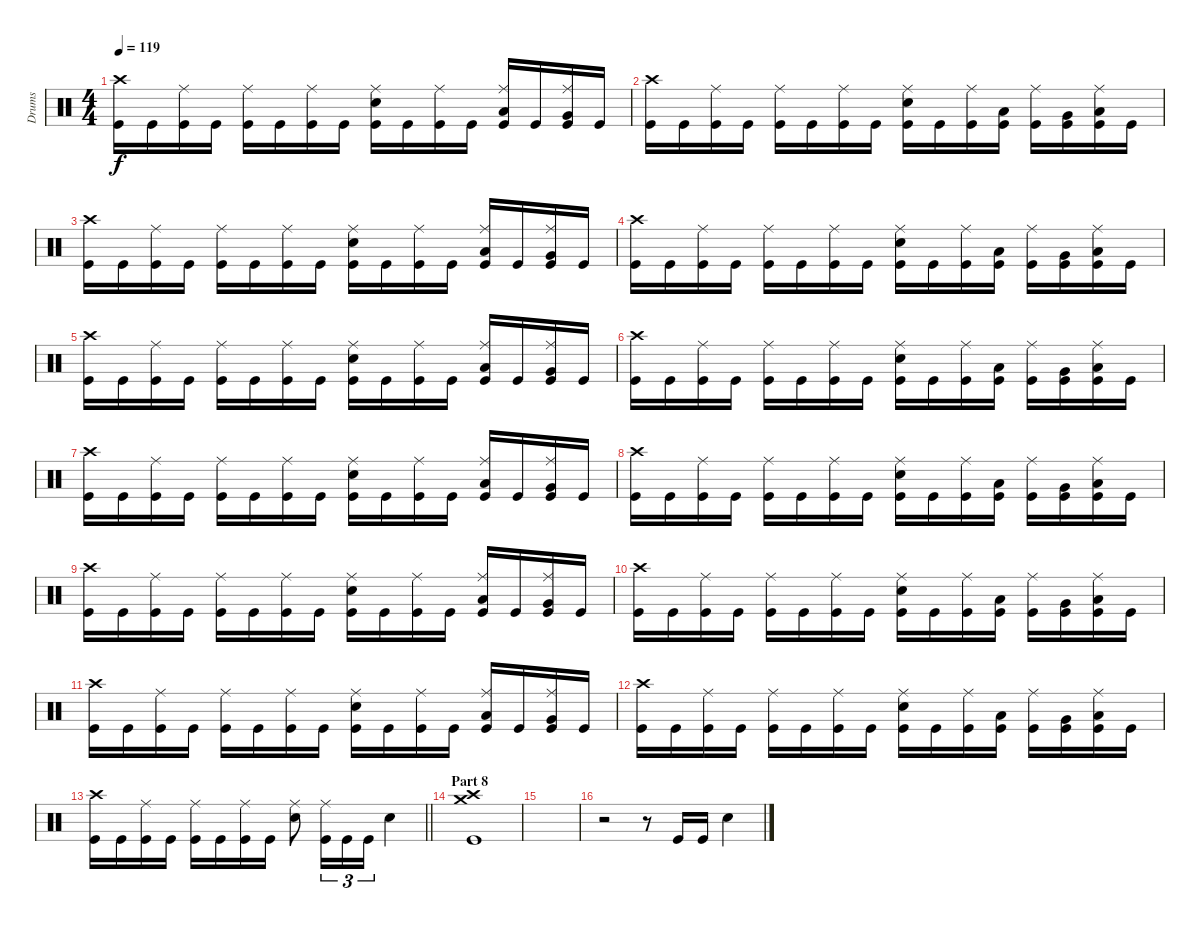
\track ("Drums" "Drums") {instrument percussion}
\staff {score}
\articulation defaults
\ts (4 4)
\tempo 119
\clef neutral
\ks c
("Crash high (hit)" "Kick (hit)").16{dy f} "Kick (hit)".16 ("Ride (middle)" "Kick (hit)").16 "Kick (hit)".16 ("Ride (middle)" "Kick (hit)").16 "Kick (hit)".16 ("Ride (middle)" "Kick (hit)").16 "Kick (hit)".16 ("Ride (middle)" "Snare (hit) 2" "Kick (hit)").16 "Kick (hit)".16 ("Ride (middle)" "Kick (hit)").16 "Kick (hit)".16 ("Ride (middle)" "Low Tom (hit)" "Kick (hit)").16 "Kick (hit)".16 ("Ride (middle)" "Very Low Tom (hit)" "Kick (hit)").16 "Kick (hit)".16 |
("Crash high (hit)" "Kick (hit)").16 "Kick (hit)".16 ("Ride (middle)" "Kick (hit)").16 "Kick (hit)".16 ("Ride (middle)" "Kick (hit)").16 "Kick (hit)".16 ("Ride (middle)" "Kick (hit)").16 "Kick (hit)".16 ("Ride (middle)" "Snare (hit) 2" "Kick (hit)").16 "Kick (hit)".16 ("Ride (middle)" "Kick (hit)").16 ("Low Tom (hit)" "Kick (hit)").16 ("Ride (middle)" "Kick (hit)").16 ("Very Low Tom (hit)" "Kick (hit)").16 ("Ride (middle)" "Low Floor Tom (hit)" "Kick (hit)").16 "Kick (hit)".16 |
("Crash high (hit)" "Kick (hit)").16 "Kick (hit)".16 ("Ride (middle)" "Kick (hit)").16 "Kick (hit)".16 ("Ride (middle)" "Kick (hit)").16 "Kick (hit)".16 ("Ride (middle)" "Kick (hit)").16 "Kick (hit)".16 ("Ride (middle)" "Snare (hit) 2" "Kick (hit)").16 "Kick (hit)".16 ("Ride (middle)" "Kick (hit)").16 "Kick (hit)".16 ("Ride (middle)" "Low Tom (hit)" "Kick (hit)").16 "Kick (hit)".16 ("Ride (middle)" "Very Low Tom (hit)" "Kick (hit)").16 "Kick (hit)".16 |
("Crash high (hit)" "Kick (hit)").16 "Kick (hit)".16 ("Ride (middle)" "Kick (hit)").16 "Kick (hit)".16 ("Ride (middle)" "Kick (hit)").16 "Kick (hit)".16 ("Ride (middle)" "Kick (hit)").16 "Kick (hit)".16 ("Ride (middle)" "Snare (hit) 2" "Kick (hit)").16 "Kick (hit)".16 ("Ride (middle)" "Kick (hit)").16 ("Low Tom (hit)" "Kick (hit)").16 ("Ride (middle)" "Kick (hit)").16 ("Very Low Tom (hit)" "Kick (hit)").16 ("Ride (middle)" "Low Floor Tom (hit)" "Kick (hit)").16 "Kick (hit)".16 |
("Crash high (hit)" "Kick (hit)").16 "Kick (hit)".16 ("Ride (middle)" "Kick (hit)").16 "Kick (hit)".16 ("Ride (middle)" "Kick (hit)").16 "Kick (hit)".16 ("Ride (middle)" "Kick (hit)").16 "Kick (hit)".16 ("Ride (middle)" "Snare (hit) 2" "Kick (hit)").16 "Kick (hit)".16 ("Ride (middle)" "Kick (hit)").16 "Kick (hit)".16 ("Ride (middle)" "Low Tom (hit)" "Kick (hit)").16 "Kick (hit)".16 ("Ride (middle)" "Very Low Tom (hit)" "Kick (hit)").16 "Kick (hit)".16 |
("Crash high (hit)" "Kick (hit)").16 "Kick (hit)".16 ("Ride (middle)" "Kick (hit)").16 "Kick (hit)".16 ("Ride (middle)" "Kick (hit)").16 "Kick (hit)".16 ("Ride (middle)" "Kick (hit)").16 "Kick (hit)".16 ("Ride (middle)" "Snare (hit) 2" "Kick (hit)").16 "Kick (hit)".16 ("Ride (middle)" "Kick (hit)").16 ("Low Tom (hit)" "Kick (hit)").16 ("Ride (middle)" "Kick (hit)").16 ("Very Low Tom (hit)" "Kick (hit)").16 ("Ride (middle)" "Low Floor Tom (hit)" "Kick (hit)").16 "Kick (hit)".16 |
("Crash high (hit)" "Kick (hit)").16 "Kick (hit)".16 ("Ride (middle)" "Kick (hit)").16 "Kick (hit)".16 ("Ride (middle)" "Kick (hit)").16 "Kick (hit)".16 ("Ride (middle)" "Kick (hit)").16 "Kick (hit)".16 ("Ride (middle)" "Snare (hit) 2" "Kick (hit)").16 "Kick (hit)".16 ("Ride (middle)" "Kick (hit)").16 "Kick (hit)".16 ("Ride (middle)" "Low Tom (hit)" "Kick (hit)").16 "Kick (hit)".16 ("Ride (middle)" "Very Low Tom (hit)" "Kick (hit)").16 "Kick (hit)".16 |
("Crash high (hit)" "Kick (hit)").16 "Kick (hit)".16 ("Ride (middle)" "Kick (hit)").16 "Kick (hit)".16 ("Ride (middle)" "Kick (hit)").16 "Kick (hit)".16 ("Ride (middle)" "Kick (hit)").16 "Kick (hit)".16 ("Ride (middle)" "Snare (hit) 2" "Kick (hit)").16 "Kick (hit)".16 ("Ride (middle)" "Kick (hit)").16 ("Low Tom (hit)" "Kick (hit)").16 ("Ride (middle)" "Kick (hit)").16 ("Very Low Tom (hit)" "Kick (hit)").16 ("Ride (middle)" "Low Floor Tom (hit)" "Kick (hit)").16 "Kick (hit)".16 |
("Crash high (hit)" "Kick (hit)").16 "Kick (hit)".16 ("Ride (middle)" "Kick (hit)").16 "Kick (hit)".16 ("Ride (middle)" "Kick (hit)").16 "Kick (hit)".16 ("Ride (middle)" "Kick (hit)").16 "Kick (hit)".16 ("Ride (middle)" "Snare (hit) 2" "Kick (hit)").16 "Kick (hit)".16 ("Ride (middle)" "Kick (hit)").16 "Kick (hit)".16 ("Ride (middle)" "Low Tom (hit)" "Kick (hit)").16 "Kick (hit)".16 ("Ride (middle)" "Very Low Tom (hit)" "Kick (hit)").16 "Kick (hit)".16 |
("Crash high (hit)" "Kick (hit)").16 "Kick (hit)".16 ("Ride (middle)" "Kick (hit)").16 "Kick (hit)".16 ("Ride (middle)" "Kick (hit)").16 "Kick (hit)".16 ("Ride (middle)" "Kick (hit)").16 "Kick (hit)".16 ("Ride (middle)" "Snare (hit) 2" "Kick (hit)").16 "Kick (hit)".16 ("Ride (middle)" "Kick (hit)").16 ("Low Tom (hit)" "Kick (hit)").16 ("Ride (middle)" "Kick (hit)").16 ("Very Low Tom (hit)" "Kick (hit)").16 ("Ride (middle)" "Low Floor Tom (hit)" "Kick (hit)").16 "Kick (hit)".16 |
("Crash high (hit)" "Kick (hit)").16 "Kick (hit)".16 ("Ride (middle)" "Kick (hit)").16 "Kick (hit)".16 ("Ride (middle)" "Kick (hit)").16 "Kick (hit)".16 ("Ride (middle)" "Kick (hit)").16 "Kick (hit)".16 ("Ride (middle)" "Snare (hit) 2" "Kick (hit)").16 "Kick (hit)".16 ("Ride (middle)" "Kick (hit)").16 "Kick (hit)".16 ("Ride (middle)" "Low Tom (hit)" "Kick (hit)").16 "Kick (hit)".16 ("Ride (middle)" "Very Low Tom (hit)" "Kick (hit)").16 "Kick (hit)".16 |
("Crash high (hit)" "Kick (hit)").16 "Kick (hit)".16 ("Ride (middle)" "Kick (hit)").16 "Kick (hit)".16 ("Ride (middle)" "Kick (hit)").16 "Kick (hit)".16 ("Ride (middle)" "Kick (hit)").16 "Kick (hit)".16 ("Ride (middle)" "Snare (hit) 2" "Kick (hit)").16 "Kick (hit)".16 ("Ride (middle)" "Kick (hit)").16 ("Low Tom (hit)" "Kick (hit)").16 ("Ride (middle)" "Kick (hit)").16 ("Very Low Tom (hit)" "Kick (hit)").16 ("Ride (middle)" "Low Floor Tom (hit)" "Kick (hit)").16 "Kick (hit)".16 |
\barLineRight lightlight
("Crash high (hit)" "Kick (hit)").16 "Kick (hit)".16 ("Ride (middle)" "Kick (hit)").16 "Kick (hit)".16 ("Ride (middle)" "Kick (hit)").16 "Kick (hit)".16 ("Ride (middle)" "Kick (hit)").16 "Kick (hit)".16 ("Ride (middle)" "Snare (hit) 2").8 ("Ride (middle)" "Kick (hit)").16{tu (3 2)} "Kick (hit)".16{tu (3 2)} "Kick (hit)".16{tu (3 2)} "Snare (hit) 2".4 |
\section ("" "Part 8")
("Crash high (hit)" "Crash medium (hit)" "Kick (hit)").1 |
|
r.2 r.8 "Kick (hit)".16 "Kick (hit)".16 "Snare (hit) 2".4
